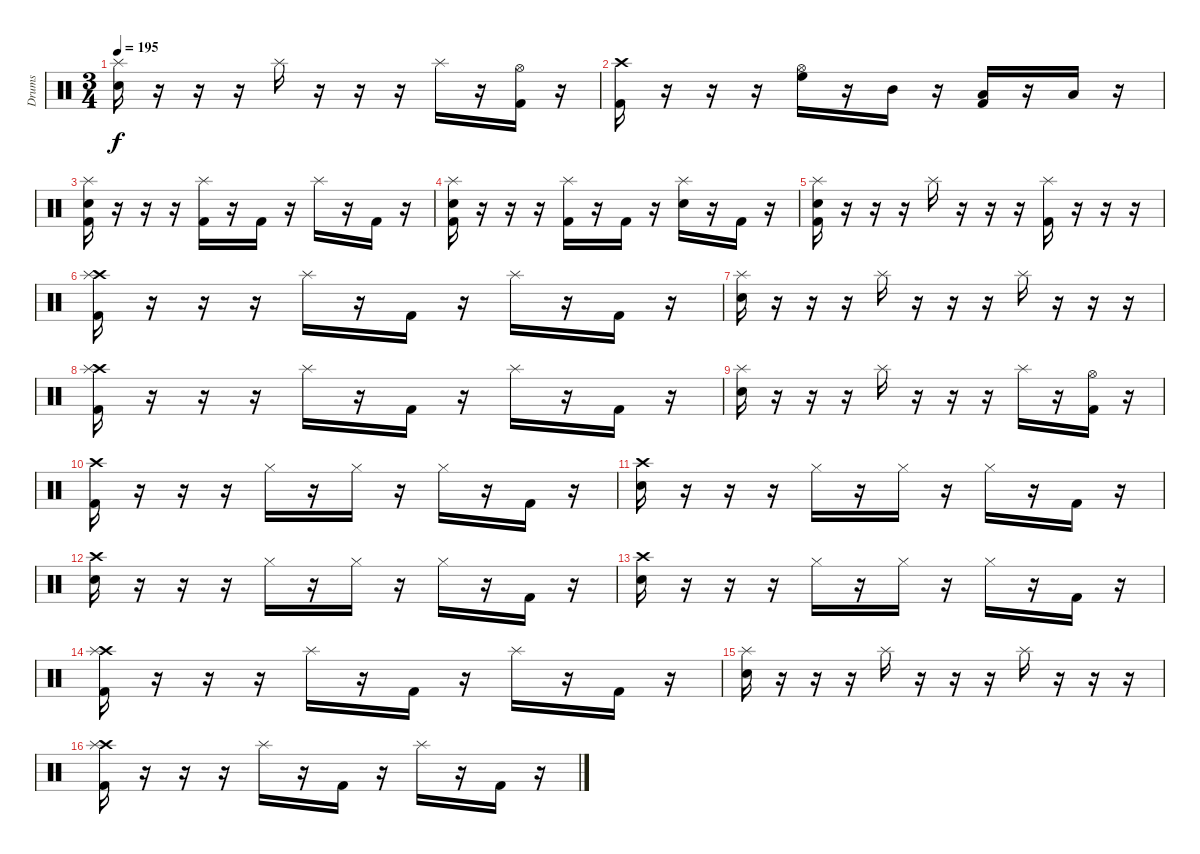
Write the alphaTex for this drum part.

\track ("Drums" "Drums") {instrument percussion}
\staff {score}
\articulation defaults
\ts (3 4)
\tempo 195
\clef neutral
\ks c
("Splash (hit)" "Snare (hit) 2").16{dy f} r.16 r.16 r.16 "Splash (hit)".16 r.16 r.16 r.16 "Splash (hit)".16 r.16 ("Hi-Hat (open)" "Kick (hit) 2").16 r.16 |
("Crash high (hit)" "Kick (hit) 2").16 r.16 r.16 r.16 ("Hi-Hat (open)" "High Floor Tom (hit)").16 r.16 "Mid Tom (hit)".16 r.16 ("Low Tom (hit)" "Kick (hit) 2").16 r.16 "Low Tom (hit)".16 r.16 |
("Splash (hit)" "Snare (hit) 2" "Kick (hit) 2").16 r.16 r.16 r.16 ("Splash (hit)" "Kick (hit) 2").16 r.16 "Kick (hit) 2".16 r.16 "Splash (hit)".16 r.16 "Kick (hit) 2".16 r.16 |
("Splash (hit)" "Snare (hit) 2" "Kick (hit) 2").16 r.16 r.16 r.16 ("Splash (hit)" "Kick (hit) 2").16 r.16 "Kick (hit) 2".16 r.16 ("Splash (hit)" "Snare (hit) 2").16 r.16 "Kick (hit) 2".16 r.16 |
("Splash (hit)" "Snare (hit) 2" "Kick (hit) 2").16 r.16 r.16 r.16 "Splash (hit)".16 r.16 r.16 r.16 ("Splash (hit)" "Kick (hit) 2").16 r.16 r.16 r.16 |
("Crash high (hit)" "Splash (hit)" "Kick (hit) 2").16 r.16 r.16 r.16 "Splash (hit)".16 r.16 "Kick (hit) 2".16 r.16 "Splash (hit)".16 r.16 "Kick (hit) 2".16 r.16 |
("Splash (hit)" "Snare (hit) 2").16 r.16 r.16 r.16 "Splash (hit)".16 r.16 r.16 r.16 "Splash (hit)".16 r.16 r.16 r.16 |
("Crash high (hit)" "Splash (hit)" "Kick (hit) 2").16 r.16 r.16 r.16 "Splash (hit)".16 r.16 "Kick (hit) 2".16 r.16 "Splash (hit)".16 r.16 "Kick (hit) 2".16 r.16 |
("Splash (hit)" "Snare (hit) 2").16 r.16 r.16 r.16 "Splash (hit)".16 r.16 r.16 r.16 "Splash (hit)".16 r.16 ("Hi-Hat (open)" "Kick (hit) 2").16 r.16 |
("Crash high (hit)" "Kick (hit) 2").16 r.16 r.16 r.16 "Hi-Hat (closed)".16 r.16 "Hi-Hat (closed)".16 r.16 "Hi-Hat (closed)".16 r.16 "Kick (hit) 2".16 r.16 |
("Crash high (hit)" "Snare (hit) 2").16 r.16 r.16 r.16 "Hi-Hat (closed)".16 r.16 "Hi-Hat (closed)".16 r.16 "Hi-Hat (closed)".16 r.16 "Kick (hit) 2".16 r.16 |
("Crash high (hit)" "Snare (hit) 2").16 r.16 r.16 r.16 "Hi-Hat (closed)".16 r.16 "Hi-Hat (closed)".16 r.16 "Hi-Hat (closed)".16 r.16 "Kick (hit) 2".16 r.16 |
("Crash high (hit)" "Snare (hit) 2").16 r.16 r.16 r.16 "Hi-Hat (closed)".16 r.16 "Hi-Hat (closed)".16 r.16 "Hi-Hat (closed)".16 r.16 "Kick (hit) 2".16 r.16 |
("Crash high (hit)" "Splash (hit)" "Kick (hit) 2").16 r.16 r.16 r.16 "Splash (hit)".16 r.16 "Kick (hit) 2".16 r.16 "Splash (hit)".16 r.16 "Kick (hit) 2".16 r.16 |
("Splash (hit)" "Snare (hit) 2").16 r.16 r.16 r.16 "Splash (hit)".16 r.16 r.16 r.16 "Splash (hit)".16 r.16 r.16 r.16 |
("Crash high (hit)" "Splash (hit)" "Kick (hit) 2").16 r.16 r.16 r.16 "Splash (hit)".16 r.16 "Kick (hit) 2".16 r.16 "Splash (hit)".16 r.16 "Kick (hit) 2".16 r.16
